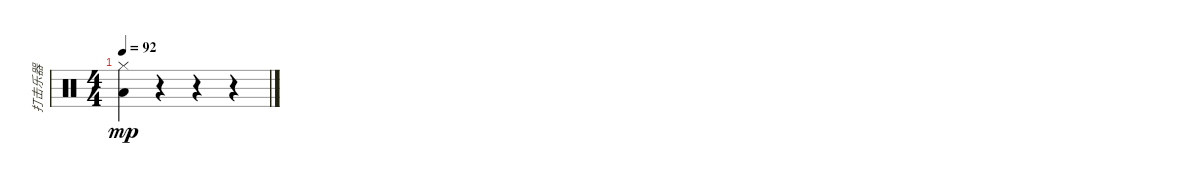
\track ("打击乐器" "打击乐器") {instrument percussion}
\staff {score}
\articulation defaults
\ts (4 4)
\tempo 92
\clef neutral
\ks c
("Hi-Hat (closed)" "Low Tom (hit)").4{dy mp} r.4 r.4 r.4
